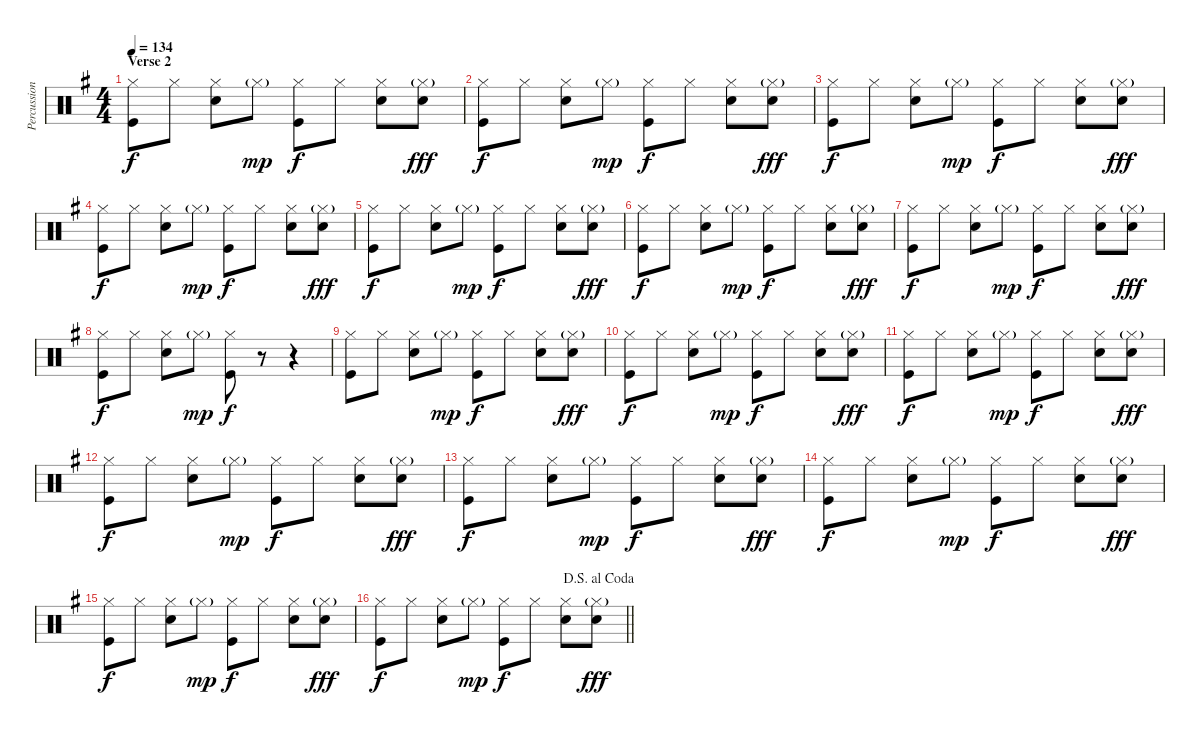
\track ("Percussion" "Percussion") {instrument percussion}
\staff {score}
\articulation defaults
\ts (4 4)
\section ("" "Verse 2")
\tempo 134
\clef neutral
\ks g
("Hi-Hat (closed)" "Kick (hit)").8{dy f} "Hi-Hat (closed)".8 ("Hi-Hat (closed)" "Snare (hit) 2").8 "Hi-Hat (closed)"{g}.8{dy mp} ("Hi-Hat (closed)" "Kick (hit)").8{dy f} "Hi-Hat (closed)".8 ("Hi-Hat (closed)" "Snare (hit) 2").8 ("Hi-Hat (closed)"{g} "Snare (hit) 2").8{dy fff} |
("Hi-Hat (closed)" "Kick (hit)").8{dy f} "Hi-Hat (closed)".8 ("Hi-Hat (closed)" "Snare (hit) 2").8 "Hi-Hat (closed)"{g}.8{dy mp} ("Hi-Hat (closed)" "Kick (hit)").8{dy f} "Hi-Hat (closed)".8 ("Hi-Hat (closed)" "Snare (hit) 2").8 ("Hi-Hat (closed)"{g} "Snare (hit) 2").8{dy fff} |
("Hi-Hat (closed)" "Kick (hit)").8{dy f} "Hi-Hat (closed)".8 ("Hi-Hat (closed)" "Snare (hit) 2").8 "Hi-Hat (closed)"{g}.8{dy mp} ("Hi-Hat (closed)" "Kick (hit)").8{dy f} "Hi-Hat (closed)".8 ("Hi-Hat (closed)" "Snare (hit) 2").8 ("Hi-Hat (closed)"{g} "Snare (hit) 2").8{dy fff} |
("Hi-Hat (closed)" "Kick (hit)").8{dy f} "Hi-Hat (closed)".8 ("Hi-Hat (closed)" "Snare (hit) 2").8 "Hi-Hat (closed)"{g}.8{dy mp} ("Hi-Hat (closed)" "Kick (hit)").8{dy f} "Hi-Hat (closed)".8 ("Hi-Hat (closed)" "Snare (hit) 2").8 ("Hi-Hat (closed)"{g} "Snare (hit) 2").8{dy fff} |
("Hi-Hat (closed)" "Kick (hit)").8{dy f} "Hi-Hat (closed)".8 ("Hi-Hat (closed)" "Snare (hit) 2").8 "Hi-Hat (closed)"{g}.8{dy mp} ("Hi-Hat (closed)" "Kick (hit)").8{dy f} "Hi-Hat (closed)".8 ("Hi-Hat (closed)" "Snare (hit) 2").8 ("Hi-Hat (closed)"{g} "Snare (hit) 2").8{dy fff} |
("Hi-Hat (closed)" "Kick (hit)").8{dy f} "Hi-Hat (closed)".8 ("Hi-Hat (closed)" "Snare (hit) 2").8 "Hi-Hat (closed)"{g}.8{dy mp} ("Hi-Hat (closed)" "Kick (hit)").8{dy f} "Hi-Hat (closed)".8 ("Hi-Hat (closed)" "Snare (hit) 2").8 ("Hi-Hat (closed)"{g} "Snare (hit) 2").8{dy fff} |
("Hi-Hat (closed)" "Kick (hit)").8{dy f} "Hi-Hat (closed)".8 ("Hi-Hat (closed)" "Snare (hit) 2").8 "Hi-Hat (closed)"{g}.8{dy mp} ("Hi-Hat (closed)" "Kick (hit)").8{dy f} "Hi-Hat (closed)".8 ("Hi-Hat (closed)" "Snare (hit) 2").8 ("Hi-Hat (closed)"{g} "Snare (hit) 2").8{dy fff} |
("Hi-Hat (closed)" "Kick (hit)").8{dy f} "Hi-Hat (closed)".8 ("Hi-Hat (closed)" "Snare (hit) 2").8 "Hi-Hat (closed)"{g}.8{dy mp} ("Hi-Hat (closed)" "Kick (hit)").8{dy f} r.8 r.4 |
("Hi-Hat (closed)" "Kick (hit)").8 "Hi-Hat (closed)".8 ("Hi-Hat (closed)" "Snare (hit) 2").8 "Hi-Hat (closed)"{g}.8{dy mp} ("Hi-Hat (closed)" "Kick (hit)").8{dy f} "Hi-Hat (closed)".8 ("Hi-Hat (closed)" "Snare (hit) 2").8 ("Hi-Hat (closed)"{g} "Snare (hit) 2").8{dy fff} |
("Hi-Hat (closed)" "Kick (hit)").8{dy f} "Hi-Hat (closed)".8 ("Hi-Hat (closed)" "Snare (hit) 2").8 "Hi-Hat (closed)"{g}.8{dy mp} ("Hi-Hat (closed)" "Kick (hit)").8{dy f} "Hi-Hat (closed)".8 ("Hi-Hat (closed)" "Snare (hit) 2").8 ("Hi-Hat (closed)"{g} "Snare (hit) 2").8{dy fff} |
("Hi-Hat (closed)" "Kick (hit)").8{dy f} "Hi-Hat (closed)".8 ("Hi-Hat (closed)" "Snare (hit) 2").8 "Hi-Hat (closed)"{g}.8{dy mp} ("Hi-Hat (closed)" "Kick (hit)").8{dy f} "Hi-Hat (closed)".8 ("Hi-Hat (closed)" "Snare (hit) 2").8 ("Hi-Hat (closed)"{g} "Snare (hit) 2").8{dy fff} |
("Hi-Hat (closed)" "Kick (hit)").8{dy f} "Hi-Hat (closed)".8 ("Hi-Hat (closed)" "Snare (hit) 2").8 "Hi-Hat (closed)"{g}.8{dy mp} ("Hi-Hat (closed)" "Kick (hit)").8{dy f} "Hi-Hat (closed)".8 ("Hi-Hat (closed)" "Snare (hit) 2").8 ("Hi-Hat (closed)"{g} "Snare (hit) 2").8{dy fff} |
("Hi-Hat (closed)" "Kick (hit)").8{dy f} "Hi-Hat (closed)".8 ("Hi-Hat (closed)" "Snare (hit) 2").8 "Hi-Hat (closed)"{g}.8{dy mp} ("Hi-Hat (closed)" "Kick (hit)").8{dy f} "Hi-Hat (closed)".8 ("Hi-Hat (closed)" "Snare (hit) 2").8 ("Hi-Hat (closed)"{g} "Snare (hit) 2").8{dy fff} |
("Hi-Hat (closed)" "Kick (hit)").8{dy f} "Hi-Hat (closed)".8 ("Hi-Hat (closed)" "Snare (hit) 2").8 "Hi-Hat (closed)"{g}.8{dy mp} ("Hi-Hat (closed)" "Kick (hit)").8{dy f} "Hi-Hat (closed)".8 ("Hi-Hat (closed)" "Snare (hit) 2").8 ("Hi-Hat (closed)"{g} "Snare (hit) 2").8{dy fff} |
("Hi-Hat (closed)" "Kick (hit)").8{dy f} "Hi-Hat (closed)".8 ("Hi-Hat (closed)" "Snare (hit) 2").8 "Hi-Hat (closed)"{g}.8{dy mp} ("Hi-Hat (closed)" "Kick (hit)").8{dy f} "Hi-Hat (closed)".8 ("Hi-Hat (closed)" "Snare (hit) 2").8 ("Hi-Hat (closed)"{g} "Snare (hit) 2").8{dy fff} |
\jump dalsegnoalcoda
\barLineRight lightlight
("Hi-Hat (closed)" "Kick (hit)").8{dy f} "Hi-Hat (closed)".8 ("Hi-Hat (closed)" "Snare (hit) 2").8 "Hi-Hat (closed)"{g}.8{dy mp} ("Hi-Hat (closed)" "Kick (hit)").8{dy f} "Hi-Hat (closed)".8 ("Hi-Hat (closed)" "Snare (hit) 2").8 ("Hi-Hat (closed)"{g} "Snare (hit) 2").8{dy fff}
